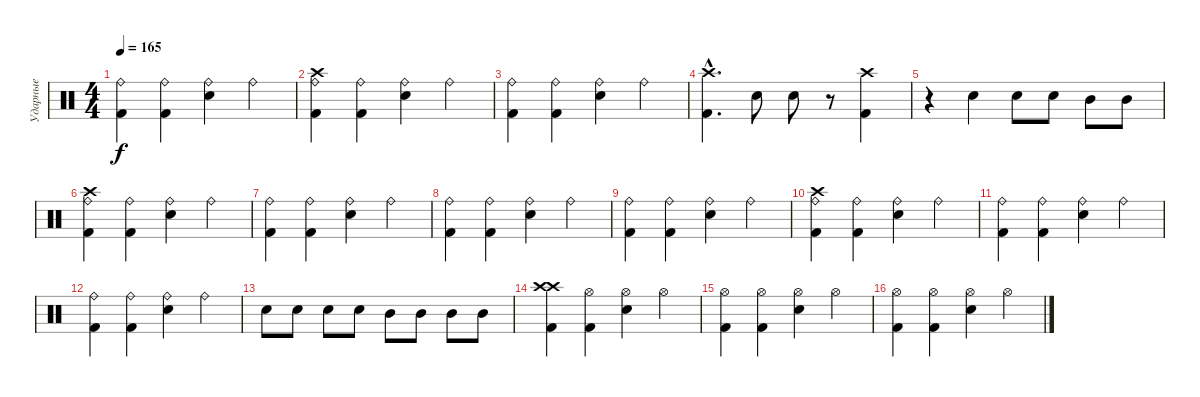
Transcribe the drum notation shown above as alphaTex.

\track ("Ударные" "Ударные") {instrument percussion}
\staff {score}
\articulation defaults
\ts (4 4)
\tempo 165
\clef neutral
\ks c
("Ride (bell)" "Kick (hit) 2").4{dy f} ("Ride (bell)" "Kick (hit) 2").4 ("Ride (bell)" "Snare (hit) 2").4 "Ride (bell)".4 |
("Crash high (hit)" "Ride (bell)" "Kick (hit) 2").4 ("Ride (bell)" "Kick (hit) 2").4 ("Ride (bell)" "Snare (hit) 2").4 "Ride (bell)".4 |
("Ride (bell)" "Kick (hit) 2").4 ("Ride (bell)" "Kick (hit) 2").4 ("Ride (bell)" "Snare (hit) 2").4 "Ride (bell)".4 |
("Crash high (hit)"{hac} "Kick (hit) 2"{hac}).4{d} "Snare (hit) 2".8 "Snare (hit) 2".8 r.8 ("Crash high (hit)" "Kick (hit) 2").4 |
r.4 "Snare (hit) 2".4 "Snare (hit) 2".8 "Snare (hit) 2".8 "Mid Tom (hit)".8 "Mid Tom (hit)".8 |
("Crash high (hit)" "Ride (bell)" "Kick (hit) 2").4 ("Ride (bell)" "Kick (hit) 2").4 ("Ride (bell)" "Snare (hit) 2").4 "Ride (bell)".4 |
("Ride (bell)" "Kick (hit) 2").4 ("Ride (bell)" "Kick (hit) 2").4 ("Ride (bell)" "Snare (hit) 2").4 "Ride (bell)".4 |
("Ride (bell)" "Kick (hit) 2").4 ("Ride (bell)" "Kick (hit) 2").4 ("Ride (bell)" "Snare (hit) 2").4 "Ride (bell)".4 |
("Ride (bell)" "Kick (hit) 2").4 ("Ride (bell)" "Kick (hit) 2").4 ("Ride (bell)" "Snare (hit) 2").4 "Ride (bell)".4 |
("Crash high (hit)" "Ride (bell)" "Kick (hit) 2").4 ("Ride (bell)" "Kick (hit) 2").4 ("Ride (bell)" "Snare (hit) 2").4 "Ride (bell)".4 |
("Ride (bell)" "Kick (hit) 2").4 ("Ride (bell)" "Kick (hit) 2").4 ("Ride (bell)" "Snare (hit) 2").4 "Ride (bell)".4 |
("Ride (bell)" "Kick (hit) 2").4 ("Ride (bell)" "Kick (hit) 2").4 ("Ride (bell)" "Snare (hit) 2").4 "Ride (bell)".4 |
"Snare (hit) 2".8 "Snare (hit) 2".8 "Snare (hit) 2".8 "Snare (hit) 2".8 "Mid Tom (hit)".8 "Mid Tom (hit)".8 "Mid Tom (hit)".8 "Mid Tom (hit)".8 |
("Crash high (hit)" "Crash high (hit)" "Kick (hit) 2").4 ("Hi-Hat (open)" "Kick (hit) 2").4 ("Hi-Hat (open)" "Snare (hit) 2").4 "Hi-Hat (open)".4 |
("Hi-Hat (open)" "Kick (hit) 2").4 ("Hi-Hat (open)" "Kick (hit) 2").4 ("Hi-Hat (open)" "Snare (hit) 2").4 "Hi-Hat (open)".4 |
("Hi-Hat (open)" "Kick (hit) 2").4 ("Hi-Hat (open)" "Kick (hit) 2").4 ("Hi-Hat (open)" "Snare (hit) 2").4 "Hi-Hat (open)".4
